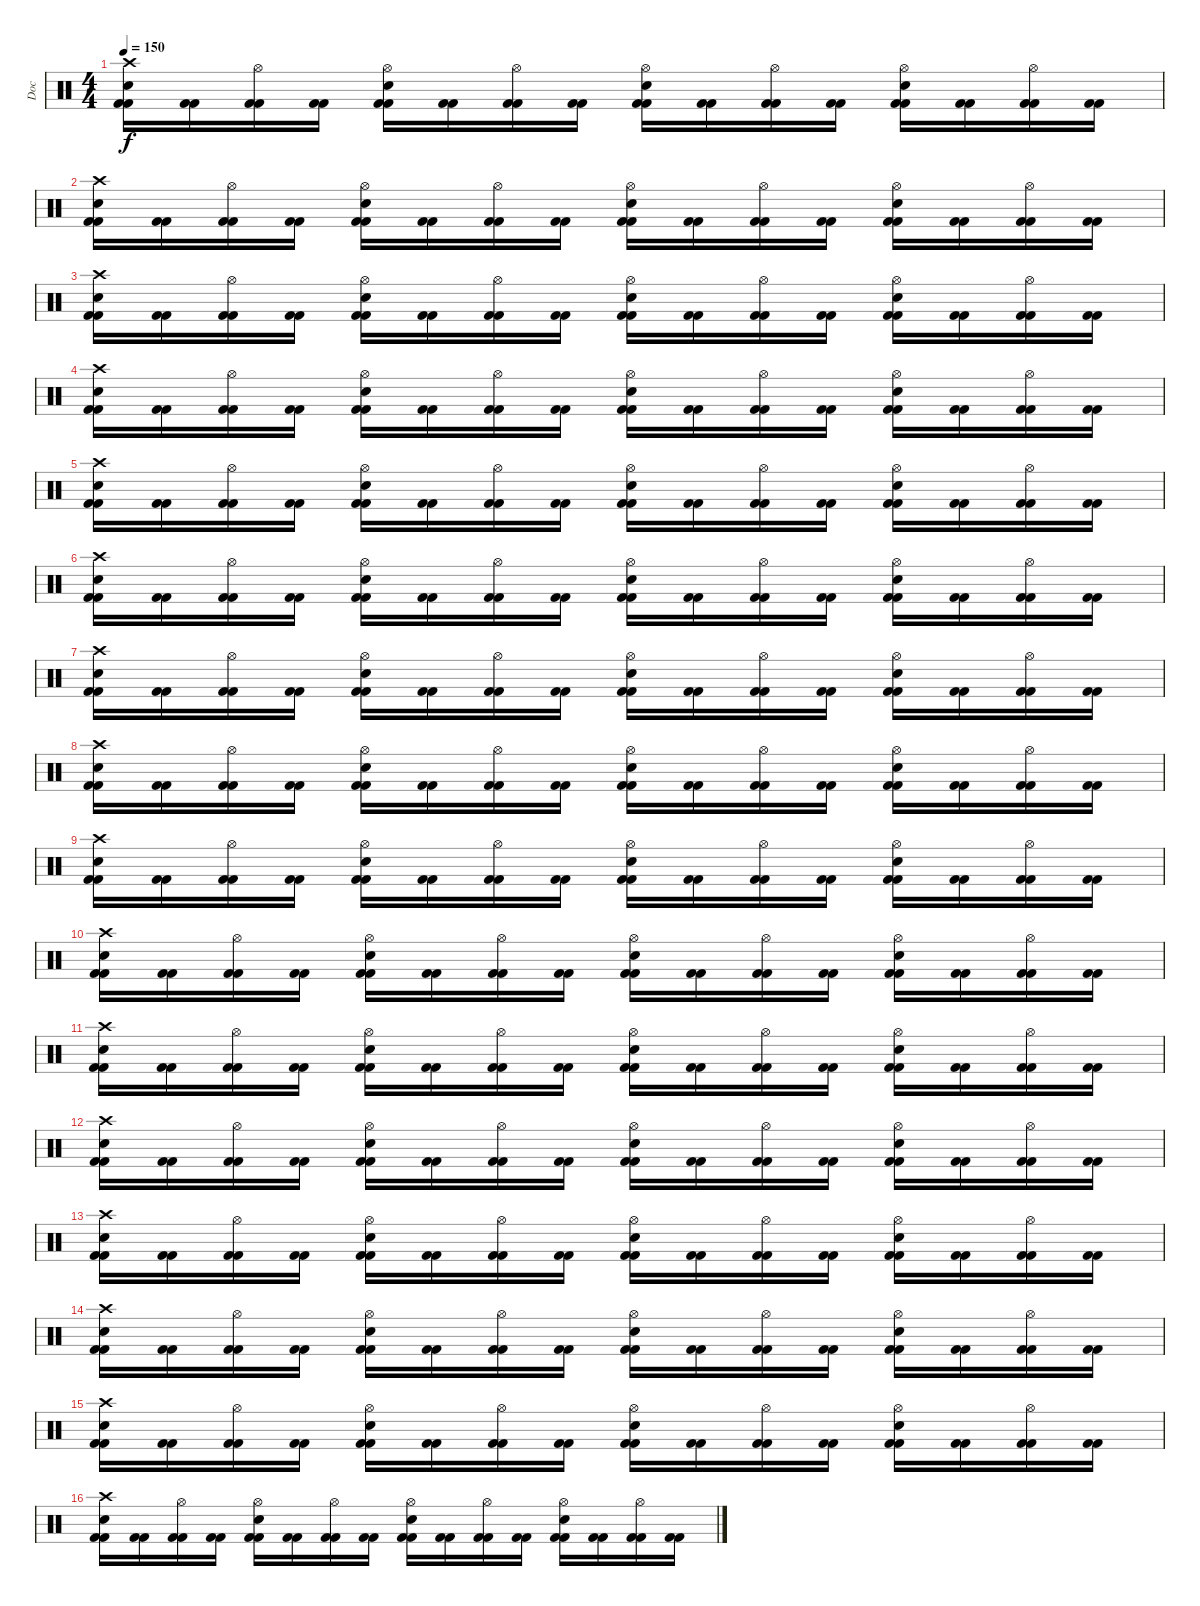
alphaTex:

\track ("Doc" "Doc") {instrument percussion}
\staff {score}
\articulation defaults
\ts (4 4)
\tempo 150
\clef neutral
\ks c
("Kick (hit) 2" "Crash high (hit)" "Electric Snare (hit)" "Kick (hit) 2").16{dy f} ("Kick (hit) 2" "Kick (hit) 2").16 ("Kick (hit) 2" "Hi-Hat (open)" "Kick (hit) 2").16 ("Kick (hit) 2" "Kick (hit) 2").16 ("Kick (hit) 2" "Hi-Hat (open)" "Electric Snare (hit)" "Kick (hit) 2").16 ("Kick (hit) 2" "Kick (hit) 2").16 ("Kick (hit) 2" "Hi-Hat (open)" "Kick (hit) 2").16 ("Kick (hit) 2" "Kick (hit) 2").16 ("Kick (hit) 2" "Hi-Hat (open)" "Electric Snare (hit)" "Kick (hit) 2").16 ("Kick (hit) 2" "Kick (hit) 2").16 ("Kick (hit) 2" "Hi-Hat (open)" "Kick (hit) 2").16 ("Kick (hit) 2" "Kick (hit) 2").16 ("Kick (hit) 2" "Hi-Hat (open)" "Electric Snare (hit)" "Kick (hit) 2").16 ("Kick (hit) 2" "Kick (hit) 2").16 ("Kick (hit) 2" "Hi-Hat (open)" "Kick (hit) 2").16 ("Kick (hit) 2" "Kick (hit) 2").16 |
("Kick (hit) 2" "Crash high (hit)" "Electric Snare (hit)" "Kick (hit) 2").16 ("Kick (hit) 2" "Kick (hit) 2").16 ("Kick (hit) 2" "Hi-Hat (open)" "Kick (hit) 2").16 ("Kick (hit) 2" "Kick (hit) 2").16 ("Kick (hit) 2" "Hi-Hat (open)" "Electric Snare (hit)" "Kick (hit) 2").16 ("Kick (hit) 2" "Kick (hit) 2").16 ("Kick (hit) 2" "Hi-Hat (open)" "Kick (hit) 2").16 ("Kick (hit) 2" "Kick (hit) 2").16 ("Kick (hit) 2" "Hi-Hat (open)" "Electric Snare (hit)" "Kick (hit) 2").16 ("Kick (hit) 2" "Kick (hit) 2").16 ("Kick (hit) 2" "Hi-Hat (open)" "Kick (hit) 2").16 ("Kick (hit) 2" "Kick (hit) 2").16 ("Kick (hit) 2" "Hi-Hat (open)" "Electric Snare (hit)" "Kick (hit) 2").16 ("Kick (hit) 2" "Kick (hit) 2").16 ("Kick (hit) 2" "Hi-Hat (open)" "Kick (hit) 2").16 ("Kick (hit) 2" "Kick (hit) 2").16 |
("Kick (hit) 2" "Crash high (hit)" "Electric Snare (hit)" "Kick (hit) 2").16 ("Kick (hit) 2" "Kick (hit) 2").16 ("Kick (hit) 2" "Hi-Hat (open)" "Kick (hit) 2").16 ("Kick (hit) 2" "Kick (hit) 2").16 ("Kick (hit) 2" "Hi-Hat (open)" "Electric Snare (hit)" "Kick (hit) 2").16 ("Kick (hit) 2" "Kick (hit) 2").16 ("Kick (hit) 2" "Hi-Hat (open)" "Kick (hit) 2").16 ("Kick (hit) 2" "Kick (hit) 2").16 ("Kick (hit) 2" "Hi-Hat (open)" "Electric Snare (hit)" "Kick (hit) 2").16 ("Kick (hit) 2" "Kick (hit) 2").16 ("Kick (hit) 2" "Hi-Hat (open)" "Kick (hit) 2").16 ("Kick (hit) 2" "Kick (hit) 2").16 ("Kick (hit) 2" "Hi-Hat (open)" "Electric Snare (hit)" "Kick (hit) 2").16 ("Kick (hit) 2" "Kick (hit) 2").16 ("Kick (hit) 2" "Hi-Hat (open)" "Kick (hit) 2").16 ("Kick (hit) 2" "Kick (hit) 2").16 |
("Kick (hit) 2" "Crash high (hit)" "Electric Snare (hit)" "Kick (hit) 2").16 ("Kick (hit) 2" "Kick (hit) 2").16 ("Kick (hit) 2" "Hi-Hat (open)" "Kick (hit) 2").16 ("Kick (hit) 2" "Kick (hit) 2").16 ("Kick (hit) 2" "Hi-Hat (open)" "Electric Snare (hit)" "Kick (hit) 2").16 ("Kick (hit) 2" "Kick (hit) 2").16 ("Kick (hit) 2" "Hi-Hat (open)" "Kick (hit) 2").16 ("Kick (hit) 2" "Kick (hit) 2").16 ("Kick (hit) 2" "Hi-Hat (open)" "Electric Snare (hit)" "Kick (hit) 2").16 ("Kick (hit) 2" "Kick (hit) 2").16 ("Kick (hit) 2" "Hi-Hat (open)" "Kick (hit) 2").16 ("Kick (hit) 2" "Kick (hit) 2").16 ("Kick (hit) 2" "Hi-Hat (open)" "Electric Snare (hit)" "Kick (hit) 2").16 ("Kick (hit) 2" "Kick (hit) 2").16 ("Kick (hit) 2" "Hi-Hat (open)" "Kick (hit) 2").16 ("Kick (hit) 2" "Kick (hit) 2").16 |
("Kick (hit) 2" "Crash high (hit)" "Electric Snare (hit)" "Kick (hit) 2").16 ("Kick (hit) 2" "Kick (hit) 2").16 ("Kick (hit) 2" "Hi-Hat (open)" "Kick (hit) 2").16 ("Kick (hit) 2" "Kick (hit) 2").16 ("Kick (hit) 2" "Hi-Hat (open)" "Electric Snare (hit)" "Kick (hit) 2").16 ("Kick (hit) 2" "Kick (hit) 2").16 ("Kick (hit) 2" "Hi-Hat (open)" "Kick (hit) 2").16 ("Kick (hit) 2" "Kick (hit) 2").16 ("Kick (hit) 2" "Hi-Hat (open)" "Electric Snare (hit)" "Kick (hit) 2").16 ("Kick (hit) 2" "Kick (hit) 2").16 ("Kick (hit) 2" "Hi-Hat (open)" "Kick (hit) 2").16 ("Kick (hit) 2" "Kick (hit) 2").16 ("Kick (hit) 2" "Hi-Hat (open)" "Electric Snare (hit)" "Kick (hit) 2").16 ("Kick (hit) 2" "Kick (hit) 2").16 ("Kick (hit) 2" "Hi-Hat (open)" "Kick (hit) 2").16 ("Kick (hit) 2" "Kick (hit) 2").16 |
("Kick (hit) 2" "Crash high (hit)" "Electric Snare (hit)" "Kick (hit) 2").16 ("Kick (hit) 2" "Kick (hit) 2").16 ("Kick (hit) 2" "Hi-Hat (open)" "Kick (hit) 2").16 ("Kick (hit) 2" "Kick (hit) 2").16 ("Kick (hit) 2" "Hi-Hat (open)" "Electric Snare (hit)" "Kick (hit) 2").16 ("Kick (hit) 2" "Kick (hit) 2").16 ("Kick (hit) 2" "Hi-Hat (open)" "Kick (hit) 2").16 ("Kick (hit) 2" "Kick (hit) 2").16 ("Kick (hit) 2" "Hi-Hat (open)" "Electric Snare (hit)" "Kick (hit) 2").16 ("Kick (hit) 2" "Kick (hit) 2").16 ("Kick (hit) 2" "Hi-Hat (open)" "Kick (hit) 2").16 ("Kick (hit) 2" "Kick (hit) 2").16 ("Kick (hit) 2" "Hi-Hat (open)" "Electric Snare (hit)" "Kick (hit) 2").16 ("Kick (hit) 2" "Kick (hit) 2").16 ("Kick (hit) 2" "Hi-Hat (open)" "Kick (hit) 2").16 ("Kick (hit) 2" "Kick (hit) 2").16 |
("Kick (hit) 2" "Crash high (hit)" "Electric Snare (hit)" "Kick (hit) 2").16 ("Kick (hit) 2" "Kick (hit) 2").16 ("Kick (hit) 2" "Hi-Hat (open)" "Kick (hit) 2").16 ("Kick (hit) 2" "Kick (hit) 2").16 ("Kick (hit) 2" "Hi-Hat (open)" "Electric Snare (hit)" "Kick (hit) 2").16 ("Kick (hit) 2" "Kick (hit) 2").16 ("Kick (hit) 2" "Hi-Hat (open)" "Kick (hit) 2").16 ("Kick (hit) 2" "Kick (hit) 2").16 ("Kick (hit) 2" "Hi-Hat (open)" "Electric Snare (hit)" "Kick (hit) 2").16 ("Kick (hit) 2" "Kick (hit) 2").16 ("Kick (hit) 2" "Hi-Hat (open)" "Kick (hit) 2").16 ("Kick (hit) 2" "Kick (hit) 2").16 ("Kick (hit) 2" "Hi-Hat (open)" "Electric Snare (hit)" "Kick (hit) 2").16 ("Kick (hit) 2" "Kick (hit) 2").16 ("Kick (hit) 2" "Hi-Hat (open)" "Kick (hit) 2").16 ("Kick (hit) 2" "Kick (hit) 2").16 |
("Kick (hit) 2" "Crash high (hit)" "Electric Snare (hit)" "Kick (hit) 2").16 ("Kick (hit) 2" "Kick (hit) 2").16 ("Kick (hit) 2" "Hi-Hat (open)" "Kick (hit) 2").16 ("Kick (hit) 2" "Kick (hit) 2").16 ("Kick (hit) 2" "Hi-Hat (open)" "Electric Snare (hit)" "Kick (hit) 2").16 ("Kick (hit) 2" "Kick (hit) 2").16 ("Kick (hit) 2" "Hi-Hat (open)" "Kick (hit) 2").16 ("Kick (hit) 2" "Kick (hit) 2").16 ("Kick (hit) 2" "Hi-Hat (open)" "Electric Snare (hit)" "Kick (hit) 2").16 ("Kick (hit) 2" "Kick (hit) 2").16 ("Kick (hit) 2" "Hi-Hat (open)" "Kick (hit) 2").16 ("Kick (hit) 2" "Kick (hit) 2").16 ("Kick (hit) 2" "Hi-Hat (open)" "Electric Snare (hit)" "Kick (hit) 2").16 ("Kick (hit) 2" "Kick (hit) 2").16 ("Kick (hit) 2" "Hi-Hat (open)" "Kick (hit) 2").16 ("Kick (hit) 2" "Kick (hit) 2").16 |
("Kick (hit) 2" "Crash high (hit)" "Electric Snare (hit)" "Kick (hit) 2").16 ("Kick (hit) 2" "Kick (hit) 2").16 ("Kick (hit) 2" "Hi-Hat (open)" "Kick (hit) 2").16 ("Kick (hit) 2" "Kick (hit) 2").16 ("Kick (hit) 2" "Hi-Hat (open)" "Electric Snare (hit)" "Kick (hit) 2").16 ("Kick (hit) 2" "Kick (hit) 2").16 ("Kick (hit) 2" "Hi-Hat (open)" "Kick (hit) 2").16 ("Kick (hit) 2" "Kick (hit) 2").16 ("Kick (hit) 2" "Hi-Hat (open)" "Electric Snare (hit)" "Kick (hit) 2").16 ("Kick (hit) 2" "Kick (hit) 2").16 ("Kick (hit) 2" "Hi-Hat (open)" "Kick (hit) 2").16 ("Kick (hit) 2" "Kick (hit) 2").16 ("Kick (hit) 2" "Hi-Hat (open)" "Electric Snare (hit)" "Kick (hit) 2").16 ("Kick (hit) 2" "Kick (hit) 2").16 ("Kick (hit) 2" "Hi-Hat (open)" "Kick (hit) 2").16 ("Kick (hit) 2" "Kick (hit) 2").16 |
("Kick (hit) 2" "Crash high (hit)" "Electric Snare (hit)" "Kick (hit) 2").16 ("Kick (hit) 2" "Kick (hit) 2").16 ("Kick (hit) 2" "Hi-Hat (open)" "Kick (hit) 2").16 ("Kick (hit) 2" "Kick (hit) 2").16 ("Kick (hit) 2" "Hi-Hat (open)" "Electric Snare (hit)" "Kick (hit) 2").16 ("Kick (hit) 2" "Kick (hit) 2").16 ("Kick (hit) 2" "Hi-Hat (open)" "Kick (hit) 2").16 ("Kick (hit) 2" "Kick (hit) 2").16 ("Kick (hit) 2" "Hi-Hat (open)" "Electric Snare (hit)" "Kick (hit) 2").16 ("Kick (hit) 2" "Kick (hit) 2").16 ("Kick (hit) 2" "Hi-Hat (open)" "Kick (hit) 2").16 ("Kick (hit) 2" "Kick (hit) 2").16 ("Kick (hit) 2" "Hi-Hat (open)" "Electric Snare (hit)" "Kick (hit) 2").16 ("Kick (hit) 2" "Kick (hit) 2").16 ("Kick (hit) 2" "Hi-Hat (open)" "Kick (hit) 2").16 ("Kick (hit) 2" "Kick (hit) 2").16 |
("Kick (hit) 2" "Crash high (hit)" "Electric Snare (hit)" "Kick (hit) 2").16 ("Kick (hit) 2" "Kick (hit) 2").16 ("Kick (hit) 2" "Hi-Hat (open)" "Kick (hit) 2").16 ("Kick (hit) 2" "Kick (hit) 2").16 ("Kick (hit) 2" "Hi-Hat (open)" "Electric Snare (hit)" "Kick (hit) 2").16 ("Kick (hit) 2" "Kick (hit) 2").16 ("Kick (hit) 2" "Hi-Hat (open)" "Kick (hit) 2").16 ("Kick (hit) 2" "Kick (hit) 2").16 ("Kick (hit) 2" "Hi-Hat (open)" "Electric Snare (hit)" "Kick (hit) 2").16 ("Kick (hit) 2" "Kick (hit) 2").16 ("Kick (hit) 2" "Hi-Hat (open)" "Kick (hit) 2").16 ("Kick (hit) 2" "Kick (hit) 2").16 ("Kick (hit) 2" "Hi-Hat (open)" "Electric Snare (hit)" "Kick (hit) 2").16 ("Kick (hit) 2" "Kick (hit) 2").16 ("Kick (hit) 2" "Hi-Hat (open)" "Kick (hit) 2").16 ("Kick (hit) 2" "Kick (hit) 2").16 |
("Kick (hit) 2" "Crash high (hit)" "Electric Snare (hit)" "Kick (hit) 2").16 ("Kick (hit) 2" "Kick (hit) 2").16 ("Kick (hit) 2" "Hi-Hat (open)" "Kick (hit) 2").16 ("Kick (hit) 2" "Kick (hit) 2").16 ("Kick (hit) 2" "Hi-Hat (open)" "Electric Snare (hit)" "Kick (hit) 2").16 ("Kick (hit) 2" "Kick (hit) 2").16 ("Kick (hit) 2" "Hi-Hat (open)" "Kick (hit) 2").16 ("Kick (hit) 2" "Kick (hit) 2").16 ("Kick (hit) 2" "Hi-Hat (open)" "Electric Snare (hit)" "Kick (hit) 2").16 ("Kick (hit) 2" "Kick (hit) 2").16 ("Kick (hit) 2" "Hi-Hat (open)" "Kick (hit) 2").16 ("Kick (hit) 2" "Kick (hit) 2").16 ("Kick (hit) 2" "Hi-Hat (open)" "Electric Snare (hit)" "Kick (hit) 2").16 ("Kick (hit) 2" "Kick (hit) 2").16 ("Kick (hit) 2" "Hi-Hat (open)" "Kick (hit) 2").16 ("Kick (hit) 2" "Kick (hit) 2").16 |
("Kick (hit) 2" "Crash high (hit)" "Electric Snare (hit)" "Kick (hit) 2").16 ("Kick (hit) 2" "Kick (hit) 2").16 ("Kick (hit) 2" "Hi-Hat (open)" "Kick (hit) 2").16 ("Kick (hit) 2" "Kick (hit) 2").16 ("Kick (hit) 2" "Hi-Hat (open)" "Electric Snare (hit)" "Kick (hit) 2").16 ("Kick (hit) 2" "Kick (hit) 2").16 ("Kick (hit) 2" "Hi-Hat (open)" "Kick (hit) 2").16 ("Kick (hit) 2" "Kick (hit) 2").16 ("Kick (hit) 2" "Hi-Hat (open)" "Electric Snare (hit)" "Kick (hit) 2").16 ("Kick (hit) 2" "Kick (hit) 2").16 ("Kick (hit) 2" "Hi-Hat (open)" "Kick (hit) 2").16 ("Kick (hit) 2" "Kick (hit) 2").16 ("Kick (hit) 2" "Hi-Hat (open)" "Electric Snare (hit)" "Kick (hit) 2").16 ("Kick (hit) 2" "Kick (hit) 2").16 ("Kick (hit) 2" "Hi-Hat (open)" "Kick (hit) 2").16 ("Kick (hit) 2" "Kick (hit) 2").16 |
("Kick (hit) 2" "Crash high (hit)" "Electric Snare (hit)" "Kick (hit) 2").16 ("Kick (hit) 2" "Kick (hit) 2").16 ("Kick (hit) 2" "Hi-Hat (open)" "Kick (hit) 2").16 ("Kick (hit) 2" "Kick (hit) 2").16 ("Kick (hit) 2" "Hi-Hat (open)" "Electric Snare (hit)" "Kick (hit) 2").16 ("Kick (hit) 2" "Kick (hit) 2").16 ("Kick (hit) 2" "Hi-Hat (open)" "Kick (hit) 2").16 ("Kick (hit) 2" "Kick (hit) 2").16 ("Kick (hit) 2" "Hi-Hat (open)" "Electric Snare (hit)" "Kick (hit) 2").16 ("Kick (hit) 2" "Kick (hit) 2").16 ("Kick (hit) 2" "Hi-Hat (open)" "Kick (hit) 2").16 ("Kick (hit) 2" "Kick (hit) 2").16 ("Kick (hit) 2" "Hi-Hat (open)" "Electric Snare (hit)" "Kick (hit) 2").16 ("Kick (hit) 2" "Kick (hit) 2").16 ("Kick (hit) 2" "Hi-Hat (open)" "Kick (hit) 2").16 ("Kick (hit) 2" "Kick (hit) 2").16 |
("Kick (hit) 2" "Crash high (hit)" "Electric Snare (hit)" "Kick (hit) 2").16 ("Kick (hit) 2" "Kick (hit) 2").16 ("Kick (hit) 2" "Hi-Hat (open)" "Kick (hit) 2").16 ("Kick (hit) 2" "Kick (hit) 2").16 ("Kick (hit) 2" "Hi-Hat (open)" "Electric Snare (hit)" "Kick (hit) 2").16 ("Kick (hit) 2" "Kick (hit) 2").16 ("Kick (hit) 2" "Hi-Hat (open)" "Kick (hit) 2").16 ("Kick (hit) 2" "Kick (hit) 2").16 ("Kick (hit) 2" "Hi-Hat (open)" "Electric Snare (hit)" "Kick (hit) 2").16 ("Kick (hit) 2" "Kick (hit) 2").16 ("Kick (hit) 2" "Hi-Hat (open)" "Kick (hit) 2").16 ("Kick (hit) 2" "Kick (hit) 2").16 ("Kick (hit) 2" "Hi-Hat (open)" "Electric Snare (hit)" "Kick (hit) 2").16 ("Kick (hit) 2" "Kick (hit) 2").16 ("Kick (hit) 2" "Hi-Hat (open)" "Kick (hit) 2").16 ("Kick (hit) 2" "Kick (hit) 2").16 |
("Kick (hit) 2" "Crash high (hit)" "Electric Snare (hit)" "Kick (hit) 2").16 ("Kick (hit) 2" "Kick (hit) 2").16 ("Kick (hit) 2" "Hi-Hat (open)" "Kick (hit) 2").16 ("Kick (hit) 2" "Kick (hit) 2").16 ("Kick (hit) 2" "Hi-Hat (open)" "Electric Snare (hit)" "Kick (hit) 2").16 ("Kick (hit) 2" "Kick (hit) 2").16 ("Kick (hit) 2" "Hi-Hat (open)" "Kick (hit) 2").16 ("Kick (hit) 2" "Kick (hit) 2").16 ("Kick (hit) 2" "Hi-Hat (open)" "Electric Snare (hit)" "Kick (hit) 2").16 ("Kick (hit) 2" "Kick (hit) 2").16 ("Kick (hit) 2" "Hi-Hat (open)" "Kick (hit) 2").16 ("Kick (hit) 2" "Kick (hit) 2").16 ("Kick (hit) 2" "Hi-Hat (open)" "Electric Snare (hit)" "Kick (hit) 2").16 ("Kick (hit) 2" "Kick (hit) 2").16 ("Kick (hit) 2" "Hi-Hat (open)" "Kick (hit) 2").16 ("Kick (hit) 2" "Kick (hit) 2").16
